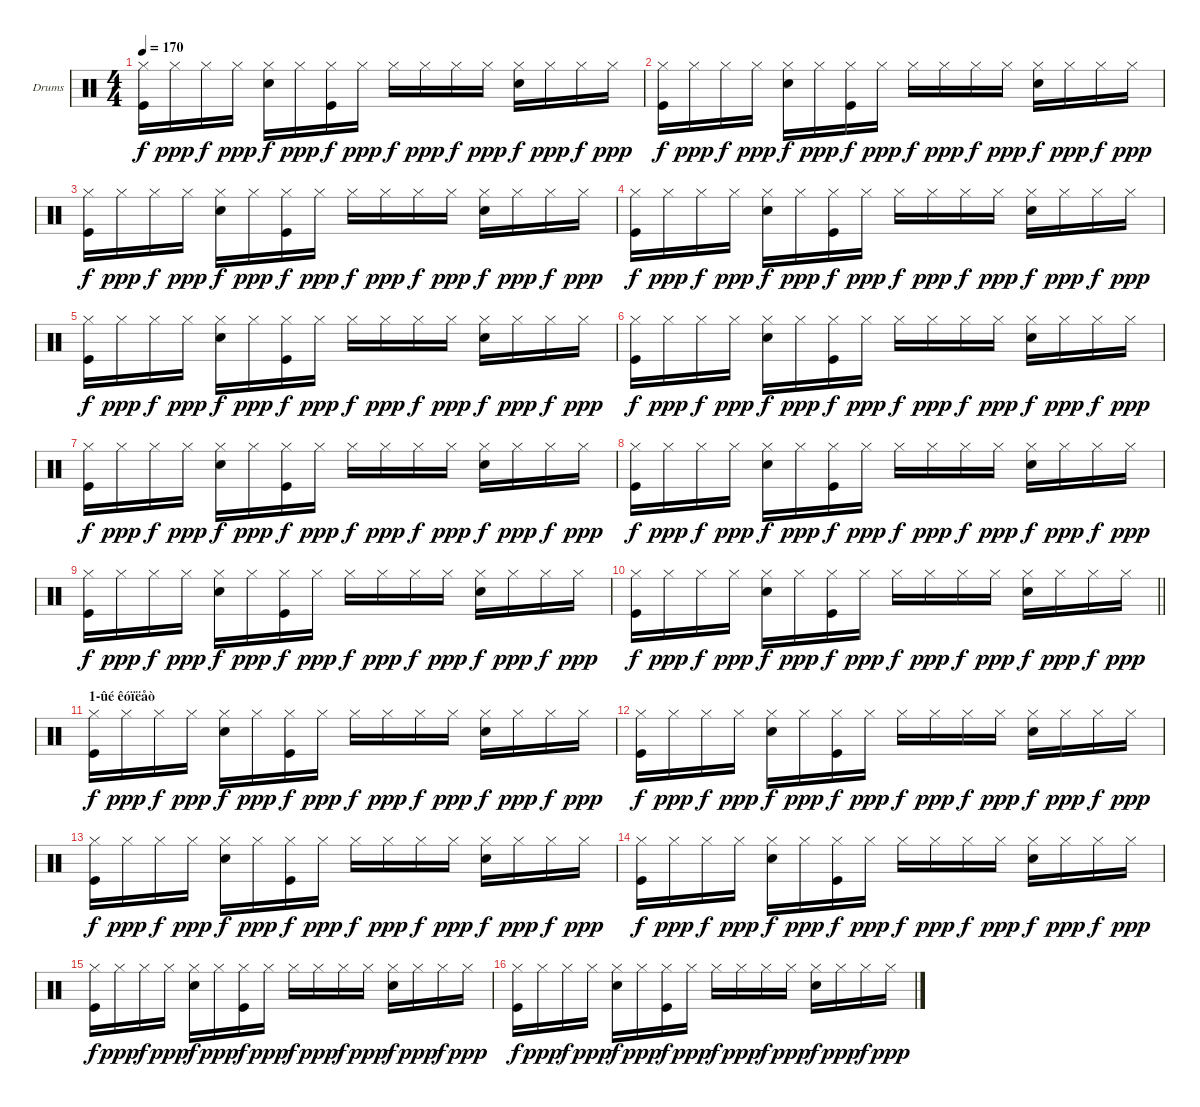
\bracketExtendMode groupsimilarinstruments
\firstSystemTrackNameOrientation horizontal
\otherSystemsTrackNameOrientation horizontal
\track ("Drumkit" "Drums") {instrument percussion}
\staff {score}
\articulation defaults
\ts (4 4)
\tempo 170
\clef neutral
\ks c
("Hi-Hat (closed)" "Kick (hit)").16{dy f} "Hi-Hat (closed)".16{dy ppp} "Hi-Hat (closed)".16{dy f} "Hi-Hat (closed)".16{dy ppp} ("Hi-Hat (closed)" "Snare (hit) 2").16{dy f} "Hi-Hat (closed)".16{dy ppp} ("Hi-Hat (closed)" "Kick (hit)").16{dy f} "Hi-Hat (closed)".16{dy ppp} "Hi-Hat (closed)".16{dy f} "Hi-Hat (closed)".16{dy ppp} "Hi-Hat (closed)".16{dy f} "Hi-Hat (closed)".16{dy ppp} ("Hi-Hat (closed)" "Snare (hit) 2").16{dy f} "Hi-Hat (closed)".16{dy ppp} "Hi-Hat (closed)".16{dy f} "Hi-Hat (closed)".16{dy ppp} |
("Hi-Hat (closed)" "Kick (hit)").16{dy f} "Hi-Hat (closed)".16{dy ppp} "Hi-Hat (closed)".16{dy f} "Hi-Hat (closed)".16{dy ppp} ("Hi-Hat (closed)" "Snare (hit) 2").16{dy f} "Hi-Hat (closed)".16{dy ppp} ("Hi-Hat (closed)" "Kick (hit)").16{dy f} "Hi-Hat (closed)".16{dy ppp} "Hi-Hat (closed)".16{dy f} "Hi-Hat (closed)".16{dy ppp} "Hi-Hat (closed)".16{dy f} "Hi-Hat (closed)".16{dy ppp} ("Hi-Hat (closed)" "Snare (hit) 2").16{dy f} "Hi-Hat (closed)".16{dy ppp} "Hi-Hat (closed)".16{dy f} "Hi-Hat (closed)".16{dy ppp} |
("Hi-Hat (closed)" "Kick (hit)").16{dy f} "Hi-Hat (closed)".16{dy ppp} "Hi-Hat (closed)".16{dy f} "Hi-Hat (closed)".16{dy ppp} ("Hi-Hat (closed)" "Snare (hit) 2").16{dy f} "Hi-Hat (closed)".16{dy ppp} ("Hi-Hat (closed)" "Kick (hit)").16{dy f} "Hi-Hat (closed)".16{dy ppp} "Hi-Hat (closed)".16{dy f} "Hi-Hat (closed)".16{dy ppp} "Hi-Hat (closed)".16{dy f} "Hi-Hat (closed)".16{dy ppp} ("Hi-Hat (closed)" "Snare (hit) 2").16{dy f} "Hi-Hat (closed)".16{dy ppp} "Hi-Hat (closed)".16{dy f} "Hi-Hat (closed)".16{dy ppp} |
("Hi-Hat (closed)" "Kick (hit)").16{dy f} "Hi-Hat (closed)".16{dy ppp} "Hi-Hat (closed)".16{dy f} "Hi-Hat (closed)".16{dy ppp} ("Hi-Hat (closed)" "Snare (hit) 2").16{dy f} "Hi-Hat (closed)".16{dy ppp} ("Hi-Hat (closed)" "Kick (hit)").16{dy f} "Hi-Hat (closed)".16{dy ppp} "Hi-Hat (closed)".16{dy f} "Hi-Hat (closed)".16{dy ppp} "Hi-Hat (closed)".16{dy f} "Hi-Hat (closed)".16{dy ppp} ("Hi-Hat (closed)" "Snare (hit) 2").16{dy f} "Hi-Hat (closed)".16{dy ppp} "Hi-Hat (closed)".16{dy f} "Hi-Hat (closed)".16{dy ppp} |
("Hi-Hat (closed)" "Kick (hit)").16{dy f} "Hi-Hat (closed)".16{dy ppp} "Hi-Hat (closed)".16{dy f} "Hi-Hat (closed)".16{dy ppp} ("Hi-Hat (closed)" "Snare (hit) 2").16{dy f} "Hi-Hat (closed)".16{dy ppp} ("Hi-Hat (closed)" "Kick (hit)").16{dy f} "Hi-Hat (closed)".16{dy ppp} "Hi-Hat (closed)".16{dy f} "Hi-Hat (closed)".16{dy ppp} "Hi-Hat (closed)".16{dy f} "Hi-Hat (closed)".16{dy ppp} ("Hi-Hat (closed)" "Snare (hit) 2").16{dy f} "Hi-Hat (closed)".16{dy ppp} "Hi-Hat (closed)".16{dy f} "Hi-Hat (closed)".16{dy ppp} |
("Hi-Hat (closed)" "Kick (hit)").16{dy f} "Hi-Hat (closed)".16{dy ppp} "Hi-Hat (closed)".16{dy f} "Hi-Hat (closed)".16{dy ppp} ("Hi-Hat (closed)" "Snare (hit) 2").16{dy f} "Hi-Hat (closed)".16{dy ppp} ("Hi-Hat (closed)" "Kick (hit)").16{dy f} "Hi-Hat (closed)".16{dy ppp} "Hi-Hat (closed)".16{dy f} "Hi-Hat (closed)".16{dy ppp} "Hi-Hat (closed)".16{dy f} "Hi-Hat (closed)".16{dy ppp} ("Hi-Hat (closed)" "Snare (hit) 2").16{dy f} "Hi-Hat (closed)".16{dy ppp} "Hi-Hat (closed)".16{dy f} "Hi-Hat (closed)".16{dy ppp} |
("Hi-Hat (closed)" "Kick (hit)").16{dy f} "Hi-Hat (closed)".16{dy ppp} "Hi-Hat (closed)".16{dy f} "Hi-Hat (closed)".16{dy ppp} ("Hi-Hat (closed)" "Snare (hit) 2").16{dy f} "Hi-Hat (closed)".16{dy ppp} ("Hi-Hat (closed)" "Kick (hit)").16{dy f} "Hi-Hat (closed)".16{dy ppp} "Hi-Hat (closed)".16{dy f} "Hi-Hat (closed)".16{dy ppp} "Hi-Hat (closed)".16{dy f} "Hi-Hat (closed)".16{dy ppp} ("Hi-Hat (closed)" "Snare (hit) 2").16{dy f} "Hi-Hat (closed)".16{dy ppp} "Hi-Hat (closed)".16{dy f} "Hi-Hat (closed)".16{dy ppp} |
("Hi-Hat (closed)" "Kick (hit)").16{dy f} "Hi-Hat (closed)".16{dy ppp} "Hi-Hat (closed)".16{dy f} "Hi-Hat (closed)".16{dy ppp} ("Hi-Hat (closed)" "Snare (hit) 2").16{dy f} "Hi-Hat (closed)".16{dy ppp} ("Hi-Hat (closed)" "Kick (hit)").16{dy f} "Hi-Hat (closed)".16{dy ppp} "Hi-Hat (closed)".16{dy f} "Hi-Hat (closed)".16{dy ppp} "Hi-Hat (closed)".16{dy f} "Hi-Hat (closed)".16{dy ppp} ("Hi-Hat (closed)" "Snare (hit) 2").16{dy f} "Hi-Hat (closed)".16{dy ppp} "Hi-Hat (closed)".16{dy f} "Hi-Hat (closed)".16{dy ppp} |
("Hi-Hat (closed)" "Kick (hit)").16{dy f} "Hi-Hat (closed)".16{dy ppp} "Hi-Hat (closed)".16{dy f} "Hi-Hat (closed)".16{dy ppp} ("Hi-Hat (closed)" "Snare (hit) 2").16{dy f} "Hi-Hat (closed)".16{dy ppp} ("Hi-Hat (closed)" "Kick (hit)").16{dy f} "Hi-Hat (closed)".16{dy ppp} "Hi-Hat (closed)".16{dy f} "Hi-Hat (closed)".16{dy ppp} "Hi-Hat (closed)".16{dy f} "Hi-Hat (closed)".16{dy ppp} ("Hi-Hat (closed)" "Snare (hit) 2").16{dy f} "Hi-Hat (closed)".16{dy ppp} "Hi-Hat (closed)".16{dy f} "Hi-Hat (closed)".16{dy ppp} |
\barLineRight lightlight
("Hi-Hat (closed)" "Kick (hit)").16{dy f} "Hi-Hat (closed)".16{dy ppp} "Hi-Hat (closed)".16{dy f} "Hi-Hat (closed)".16{dy ppp} ("Hi-Hat (closed)" "Snare (hit) 2").16{dy f} "Hi-Hat (closed)".16{dy ppp} ("Hi-Hat (closed)" "Kick (hit)").16{dy f} "Hi-Hat (closed)".16{dy ppp} "Hi-Hat (closed)".16{dy f} "Hi-Hat (closed)".16{dy ppp} "Hi-Hat (closed)".16{dy f} "Hi-Hat (closed)".16{dy ppp} ("Hi-Hat (closed)" "Snare (hit) 2").16{dy f} "Hi-Hat (closed)".16{dy ppp} "Hi-Hat (closed)".16{dy f} "Hi-Hat (closed)".16{dy ppp} |
\section ("" "1-ûé êóïëåò")
("Hi-Hat (closed)" "Kick (hit)").16{dy f} "Hi-Hat (closed)".16{dy ppp} "Hi-Hat (closed)".16{dy f} "Hi-Hat (closed)".16{dy ppp} ("Hi-Hat (closed)" "Snare (hit) 2").16{dy f} "Hi-Hat (closed)".16{dy ppp} ("Hi-Hat (closed)" "Kick (hit)").16{dy f} "Hi-Hat (closed)".16{dy ppp} "Hi-Hat (closed)".16{dy f} "Hi-Hat (closed)".16{dy ppp} "Hi-Hat (closed)".16{dy f} "Hi-Hat (closed)".16{dy ppp} ("Hi-Hat (closed)" "Snare (hit) 2").16{dy f} "Hi-Hat (closed)".16{dy ppp} "Hi-Hat (closed)".16{dy f} "Hi-Hat (closed)".16{dy ppp} |
("Hi-Hat (closed)" "Kick (hit)").16{dy f} "Hi-Hat (closed)".16{dy ppp} "Hi-Hat (closed)".16{dy f} "Hi-Hat (closed)".16{dy ppp} ("Hi-Hat (closed)" "Snare (hit) 2").16{dy f} "Hi-Hat (closed)".16{dy ppp} ("Hi-Hat (closed)" "Kick (hit)").16{dy f} "Hi-Hat (closed)".16{dy ppp} "Hi-Hat (closed)".16{dy f} "Hi-Hat (closed)".16{dy ppp} "Hi-Hat (closed)".16{dy f} "Hi-Hat (closed)".16{dy ppp} ("Hi-Hat (closed)" "Snare (hit) 2").16{dy f} "Hi-Hat (closed)".16{dy ppp} "Hi-Hat (closed)".16{dy f} "Hi-Hat (closed)".16{dy ppp} |
("Hi-Hat (closed)" "Kick (hit)").16{dy f} "Hi-Hat (closed)".16{dy ppp} "Hi-Hat (closed)".16{dy f} "Hi-Hat (closed)".16{dy ppp} ("Hi-Hat (closed)" "Snare (hit) 2").16{dy f} "Hi-Hat (closed)".16{dy ppp} ("Hi-Hat (closed)" "Kick (hit)").16{dy f} "Hi-Hat (closed)".16{dy ppp} "Hi-Hat (closed)".16{dy f} "Hi-Hat (closed)".16{dy ppp} "Hi-Hat (closed)".16{dy f} "Hi-Hat (closed)".16{dy ppp} ("Hi-Hat (closed)" "Snare (hit) 2").16{dy f} "Hi-Hat (closed)".16{dy ppp} "Hi-Hat (closed)".16{dy f} "Hi-Hat (closed)".16{dy ppp} |
("Hi-Hat (closed)" "Kick (hit)").16{dy f} "Hi-Hat (closed)".16{dy ppp} "Hi-Hat (closed)".16{dy f} "Hi-Hat (closed)".16{dy ppp} ("Hi-Hat (closed)" "Snare (hit) 2").16{dy f} "Hi-Hat (closed)".16{dy ppp} ("Hi-Hat (closed)" "Kick (hit)").16{dy f} "Hi-Hat (closed)".16{dy ppp} "Hi-Hat (closed)".16{dy f} "Hi-Hat (closed)".16{dy ppp} "Hi-Hat (closed)".16{dy f} "Hi-Hat (closed)".16{dy ppp} ("Hi-Hat (closed)" "Snare (hit) 2").16{dy f} "Hi-Hat (closed)".16{dy ppp} "Hi-Hat (closed)".16{dy f} "Hi-Hat (closed)".16{dy ppp} |
("Hi-Hat (closed)" "Kick (hit)").16{dy f} "Hi-Hat (closed)".16{dy ppp} "Hi-Hat (closed)".16{dy f} "Hi-Hat (closed)".16{dy ppp} ("Hi-Hat (closed)" "Snare (hit) 2").16{dy f} "Hi-Hat (closed)".16{dy ppp} ("Hi-Hat (closed)" "Kick (hit)").16{dy f} "Hi-Hat (closed)".16{dy ppp} "Hi-Hat (closed)".16{dy f} "Hi-Hat (closed)".16{dy ppp} "Hi-Hat (closed)".16{dy f} "Hi-Hat (closed)".16{dy ppp} ("Hi-Hat (closed)" "Snare (hit) 2").16{dy f} "Hi-Hat (closed)".16{dy ppp} "Hi-Hat (closed)".16{dy f} "Hi-Hat (closed)".16{dy ppp} |
("Hi-Hat (closed)" "Kick (hit)").16{dy f} "Hi-Hat (closed)".16{dy ppp} "Hi-Hat (closed)".16{dy f} "Hi-Hat (closed)".16{dy ppp} ("Hi-Hat (closed)" "Snare (hit) 2").16{dy f} "Hi-Hat (closed)".16{dy ppp} ("Hi-Hat (closed)" "Kick (hit)").16{dy f} "Hi-Hat (closed)".16{dy ppp} "Hi-Hat (closed)".16{dy f} "Hi-Hat (closed)".16{dy ppp} "Hi-Hat (closed)".16{dy f} "Hi-Hat (closed)".16{dy ppp} ("Hi-Hat (closed)" "Snare (hit) 2").16{dy f} "Hi-Hat (closed)".16{dy ppp} "Hi-Hat (closed)".16{dy f} "Hi-Hat (closed)".16{dy ppp}
